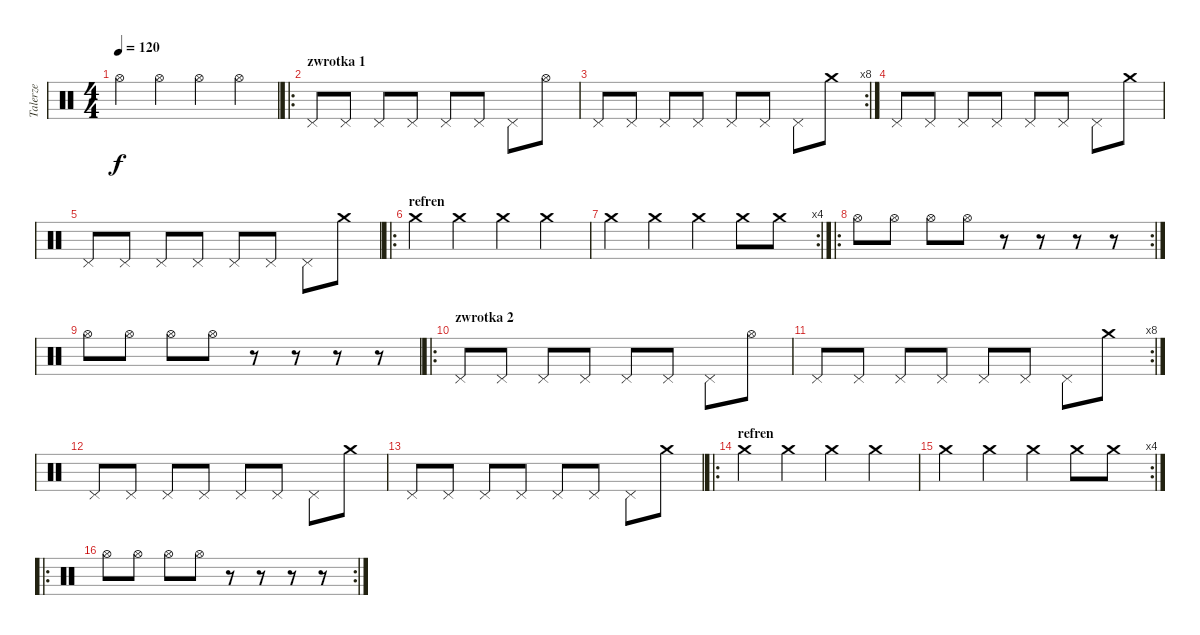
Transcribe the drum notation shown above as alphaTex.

\track ("Talerze" "Talerze") {instrument percussion}
\staff {score}
\articulation defaults
\ts (4 4)
\tempo 120
\clef neutral
\ks c "Hi-Hat (open)".4{dy f} "Hi-Hat (open)".4 "Hi-Hat (open)".4 "Hi-Hat (open)".4
|
\ro
\section ("" "zwrotka 1")
"Pedal Hi-Hat (hit)".8 "Pedal Hi-Hat (hit)".8 "Pedal Hi-Hat (hit)".8 "Pedal Hi-Hat (hit)".8 "Pedal Hi-Hat (hit)".8 "Pedal Hi-Hat (hit)".8 "Pedal Hi-Hat (hit)".8 "Hi-Hat (open)".8 |
\rc 8 "Pedal Hi-Hat (hit)".8 "Pedal Hi-Hat (hit)".8 "Pedal Hi-Hat (hit)".8 "Pedal Hi-Hat (hit)".8 "Pedal Hi-Hat (hit)".8 "Pedal Hi-Hat (hit)".8 "Pedal Hi-Hat (hit)".8 "Crash medium (hit)".8
|
"Pedal Hi-Hat (hit)".8 "Pedal Hi-Hat (hit)".8 "Pedal Hi-Hat (hit)".8 "Pedal Hi-Hat (hit)".8 "Pedal Hi-Hat (hit)".8 "Pedal Hi-Hat (hit)".8 "Pedal Hi-Hat (hit)".8 "Crash medium (hit)".8 |
"Pedal Hi-Hat (hit)".8 "Pedal Hi-Hat (hit)".8 "Pedal Hi-Hat (hit)".8 "Pedal Hi-Hat (hit)".8 "Pedal Hi-Hat (hit)".8 "Pedal Hi-Hat (hit)".8 "Pedal Hi-Hat (hit)".8 "Crash medium (hit)".8 |
\ro
\section ("" "refren")
"Crash medium (hit)".4 "Crash medium (hit)".4 "Crash medium (hit)".4 "Crash medium (hit)".4 |
\rc 4 "Crash medium (hit)".4 "Crash medium (hit)".4 "Crash medium (hit)".4 "Crash medium (hit)".8 "Crash medium (hit)".8
|
\ro
\rc 2 "Hi-Hat (open)".8 "Hi-Hat (open)".8 "Hi-Hat (open)".8 "Hi-Hat (open)".8
r.8 r.8 r.8 r.8 |
"Hi-Hat (open)".8 "Hi-Hat (open)".8 "Hi-Hat (open)".8 "Hi-Hat (open)".8 r.8 r.8 r.8 r.8 |
\ro
\section ("" "zwrotka 2")
"Pedal Hi-Hat (hit)".8 "Pedal Hi-Hat (hit)".8 "Pedal Hi-Hat (hit)".8 "Pedal Hi-Hat (hit)".8 "Pedal Hi-Hat (hit)".8 "Pedal Hi-Hat (hit)".8 "Pedal Hi-Hat (hit)".8 "Hi-Hat (open)".8 |
\rc 8 "Pedal Hi-Hat (hit)".8 "Pedal Hi-Hat (hit)".8 "Pedal Hi-Hat (hit)".8 "Pedal Hi-Hat (hit)".8 "Pedal Hi-Hat (hit)".8 "Pedal Hi-Hat (hit)".8 "Pedal Hi-Hat (hit)".8 "Crash medium (hit)".8
|
"Pedal Hi-Hat (hit)".8 "Pedal Hi-Hat (hit)".8 "Pedal Hi-Hat (hit)".8 "Pedal Hi-Hat (hit)".8 "Pedal Hi-Hat (hit)".8 "Pedal Hi-Hat (hit)".8 "Pedal Hi-Hat (hit)".8 "Crash medium (hit)".8 |
"Pedal Hi-Hat (hit)".8 "Pedal Hi-Hat (hit)".8 "Pedal Hi-Hat (hit)".8 "Pedal Hi-Hat (hit)".8 "Pedal Hi-Hat (hit)".8 "Pedal Hi-Hat (hit)".8 "Pedal Hi-Hat (hit)".8 "Crash medium (hit)".8 |
\ro
\section ("" "refren")
"Crash medium (hit)".4 "Crash medium (hit)".4 "Crash medium (hit)".4 "Crash medium (hit)".4 |
\rc 4 "Crash medium (hit)".4 "Crash medium (hit)".4 "Crash medium (hit)".4 "Crash medium (hit)".8 "Crash medium (hit)".8
|
\ro
\rc 2 "Hi-Hat (open)".8 "Hi-Hat (open)".8 "Hi-Hat (open)".8 "Hi-Hat (open)".8
r.8 r.8 r.8 r.8
